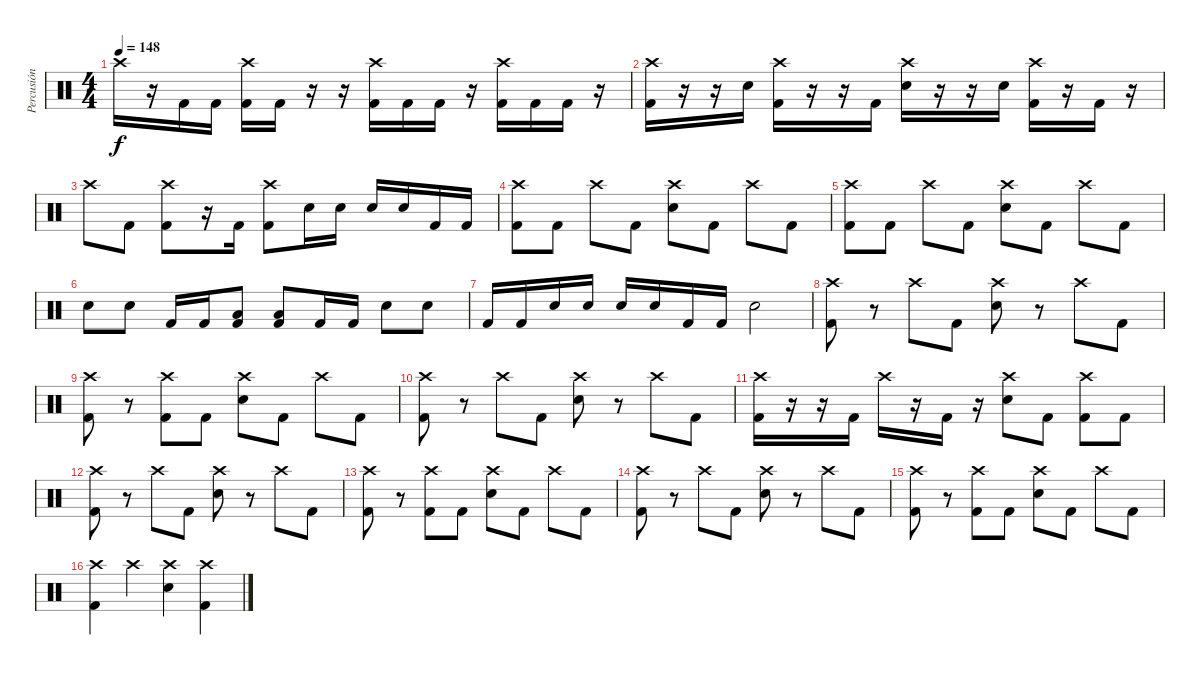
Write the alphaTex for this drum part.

\track ("Percusión" "Percusión") {instrument percussion}
\staff {score}
\articulation defaults
\ts (4 4)
\tempo 148
\clef neutral
\ks c "Crash high (hit)".16{dy f}
r.16 "Kick (hit) 2".16 "Kick (hit) 2".16 ("Crash high (hit)" "Kick (hit) 2").16 "Kick (hit) 2".16 r.16 r.16 ("Crash high (hit)" "Kick (hit) 2").16 "Kick (hit) 2".16 "Kick (hit) 2".16 r.16 ("Crash high (hit)" "Kick (hit) 2").16 "Kick (hit) 2".16 "Kick (hit) 2".16 r.16 |
("Crash high (hit)" "Kick (hit) 2").16 r.16 r.16 "Electric Snare (hit)".16 ("Crash high (hit)" "Kick (hit) 2").16 r.16 r.16 "Kick (hit) 2".16 ("Crash high (hit)" "Electric Snare (hit)").16 r.16 r.16 "Electric Snare (hit)".16 ("Crash high (hit)" "Kick (hit) 2").16 r.16 "Kick (hit) 2".16 r.16 |
"Crash high (hit)".8 "Kick (hit) 2".8 ("Crash high (hit)" "Kick (hit) 2").8 r.16 "Kick (hit) 2".16 ("Crash high (hit)" "Kick (hit) 2").8 "Electric Snare (hit)".16 "Electric Snare (hit)".16 "Electric Snare (hit)".16 "Electric Snare (hit)".16 "Kick (hit) 2".16 "Kick (hit) 2".16 |
("Crash high (hit)" "Kick (hit) 2").8 "Kick (hit) 2".8 "Crash high (hit)".8 "Kick (hit) 2".8 ("Crash high (hit)" "Electric Snare (hit)").8 "Kick (hit) 2".8 "Crash high (hit)".8 "Kick (hit) 2".8 |
("Crash high (hit)" "Kick (hit) 2").8 "Kick (hit) 2".8 "Crash high (hit)".8 "Kick (hit) 2".8 ("Crash high (hit)" "Electric Snare (hit)").8 "Kick (hit) 2".8 "Crash high (hit)".8 "Kick (hit) 2".8 |
"Electric Snare (hit)".8 "Electric Snare (hit)".8 "Kick (hit) 2".16 "Kick (hit) 2".16 ("Low Tom (hit)" "Kick (hit) 2").8 ("Low Tom (hit)" "Kick (hit) 2").8 "Kick (hit) 2".16 "Kick (hit) 2".16 "Electric Snare (hit)".8 "Electric Snare (hit)".8 |
"Kick (hit) 2".16 "Kick (hit) 2".16 "Electric Snare (hit)".16 "Electric Snare (hit)".16 "Electric Snare (hit)".16 "Electric Snare (hit)".16 "Kick (hit) 2".16 "Kick (hit) 2".16 "Electric Snare (hit)".2 |
("Crash high (hit)" "Kick (hit) 2").8 r.8 "Crash high (hit)".8 "Kick (hit) 2".8 ("Crash high (hit)" "Electric Snare (hit)").8 r.8 "Crash high (hit)".8 "Kick (hit) 2".8 |
("Crash high (hit)" "Kick (hit) 2").8 r.8 ("Crash high (hit)" "Kick (hit) 2").8 "Kick (hit) 2".8 ("Crash high (hit)" "Electric Snare (hit)").8 "Kick (hit) 2".8 "Crash high (hit)".8 "Kick (hit) 2".8 |
("Crash high (hit)" "Kick (hit) 2").8 r.8 "Crash high (hit)".8 "Kick (hit) 2".8 ("Crash high (hit)" "Electric Snare (hit)").8 r.8 "Crash high (hit)".8 "Kick (hit) 2".8 |
("Crash high (hit)" "Kick (hit) 2").16 r.16 r.16 "Kick (hit) 2".16 "Crash high (hit)".16 r.16 "Kick (hit) 2".16 r.16 ("Crash high (hit)" "Electric Snare (hit)").8 "Kick (hit) 2".8 ("Crash high (hit)" "Kick (hit) 2").8 "Kick (hit) 2".8 |
("Crash high (hit)" "Kick (hit) 2").8 r.8 "Crash high (hit)".8 "Kick (hit) 2".8 ("Crash high (hit)" "Electric Snare (hit)").8 r.8 "Crash high (hit)".8 "Kick (hit) 2".8 |
("Crash high (hit)" "Kick (hit) 2").8 r.8 ("Crash high (hit)" "Kick (hit) 2").8 "Kick (hit) 2".8 ("Crash high (hit)" "Electric Snare (hit)").8 "Kick (hit) 2".8 "Crash high (hit)".8 "Kick (hit) 2".8 |
("Crash high (hit)" "Kick (hit) 2").8 r.8 "Crash high (hit)".8 "Kick (hit) 2".8 ("Crash high (hit)" "Electric Snare (hit)").8 r.8 "Crash high (hit)".8 "Kick (hit) 2".8 |
("Crash high (hit)" "Kick (hit) 2").8 r.8 ("Crash high (hit)" "Kick (hit) 2").8 "Kick (hit) 2".8 ("Crash high (hit)" "Electric Snare (hit)").8 "Kick (hit) 2".8 "Crash high (hit)".8 "Kick (hit) 2".8 |
("Crash high (hit)" "Kick (hit) 2").4 "Crash high (hit)".4 ("Crash high (hit)" "Electric Snare (hit)").4 ("Crash high (hit)" "Kick (hit) 2").4
